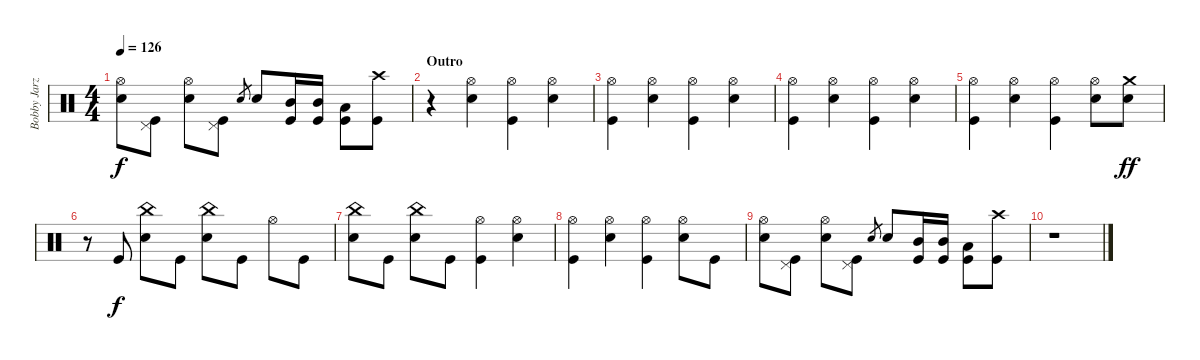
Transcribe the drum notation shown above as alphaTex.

\track ("Bobby Jarzombek" "Bobby Jarz") {instrument percussion}
\staff {score}
\articulation defaults
\ts (4 4)
\tempo 126
\clef neutral
\ks c
("Hi-Hat (open)" "Electric Snare (hit)").8{dy f} ("Pedal Hi-Hat (hit)" "Kick (hit)").8 ("Hi-Hat (open)" "Electric Snare (hit)").8 ("Pedal Hi-Hat (hit)" "Kick (hit)").8 "Electric Snare (hit)".8{gr} "Electric Snare (hit)".8 ("Mid Tom (hit)" "Kick (hit)").16 ("Mid Tom (hit)" "Kick (hit)").16 ("Low Tom (hit)" "Kick (hit)").8 ("Crash high (hit)" "Kick (hit)").8 |
\section ("" "Outro")
r.4 ("Hi-Hat (open)" "Electric Snare (hit)").4 ("Hi-Hat (open)" "Kick (hit)").4 ("Hi-Hat (open)" "Electric Snare (hit)").4 |
("Hi-Hat (open)" "Kick (hit)").4 ("Hi-Hat (open)" "Electric Snare (hit)").4 ("Hi-Hat (open)" "Kick (hit)").4 ("Hi-Hat (open)" "Electric Snare (hit)").4 |
("Hi-Hat (open)" "Kick (hit)").4 ("Hi-Hat (open)" "Electric Snare (hit)").4 ("Hi-Hat (open)" "Kick (hit)").4 ("Hi-Hat (open)" "Electric Snare (hit)").4 |
("Hi-Hat (open)" "Kick (hit)").4 ("Hi-Hat (open)" "Electric Snare (hit)").4 ("Hi-Hat (open)" "Kick (hit)").4 ("Hi-Hat (open)" "Electric Snare (hit)").8 ("Crash medium (hit)" "Electric Snare (hit)").8{dy ff} |
r.8 "Kick (hit)".8{dy f} ("China (hit)" "Electric Snare (hit)").8 "Kick (hit)".8 ("China (hit)" "Electric Snare (hit)").8 "Kick (hit)".8 "Hi-Hat (open)".8 "Kick (hit)".8 |
("China (hit)" "Electric Snare (hit)").8 "Kick (hit)".8 ("China (hit)" "Electric Snare (hit)").8 "Kick (hit)".8 ("Hi-Hat (open)" "Kick (hit)").4 ("Hi-Hat (open)" "Electric Snare (hit)").4 |
("Hi-Hat (open)" "Kick (hit)").4 ("Hi-Hat (open)" "Electric Snare (hit)").4 ("Hi-Hat (open)" "Kick (hit)").4 ("Hi-Hat (open)" "Electric Snare (hit)").8 "Kick (hit)".8 |
("Hi-Hat (open)" "Electric Snare (hit)").8 ("Pedal Hi-Hat (hit)" "Kick (hit)").8 ("Hi-Hat (open)" "Electric Snare (hit)").8 ("Pedal Hi-Hat (hit)" "Kick (hit)").8 "Electric Snare (hit)".8{gr} "Electric Snare (hit)".8 ("Mid Tom (hit)" "Kick (hit)").16 ("Mid Tom (hit)" "Kick (hit)").16 ("Low Tom (hit)" "Kick (hit)").8 ("Crash high (hit)" "Kick (hit)").8 |
r.1
